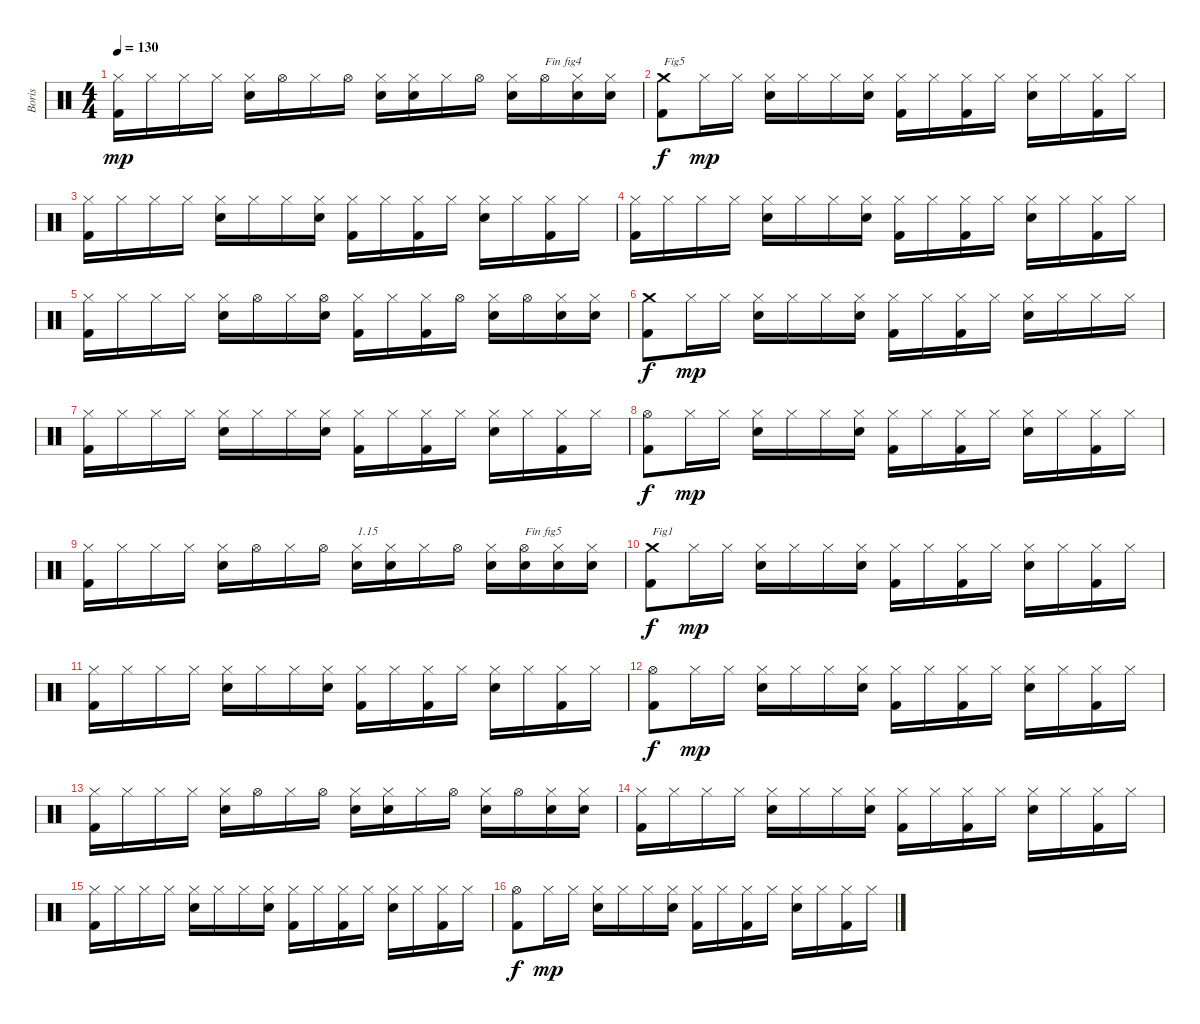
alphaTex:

\track ("Boris" "Boris") {instrument percussion}
\staff {score}
\articulation defaults
\ts (4 4)
\tempo 130
\clef neutral
\ks c
("Kick (hit) 2" "Hi-Hat (closed)").16{dy mp} "Hi-Hat (closed)".16 "Hi-Hat (closed)".16 "Hi-Hat (closed)".16 ("Electric Snare (hit)" "Hi-Hat (closed)").16 "Hi-Hat (open)".16 "Hi-Hat (closed)".16 "Hi-Hat (open)".16 ("Electric Snare (hit)" "Hi-Hat (closed)").16 ("Electric Snare (hit)" "Hi-Hat (closed)").16 "Hi-Hat (closed)".16 "Hi-Hat (open)".16 ("Electric Snare (hit)" "Hi-Hat (closed)").16 "Hi-Hat (open)".16{txt "Fin fig4"} ("Electric Snare (hit)" "Hi-Hat (closed)").16 ("Electric Snare (hit)" "Hi-Hat (closed)").16 |
("Kick (hit) 2" "Crash medium (hit)").8{txt "Fig5" dy f} "Hi-Hat (closed)".16{dy mp} "Hi-Hat (closed)".16 ("Electric Snare (hit)" "Hi-Hat (closed)").16 "Hi-Hat (closed)".16 "Hi-Hat (closed)".16 ("Electric Snare (hit)" "Hi-Hat (closed)").16 ("Kick (hit) 2" "Hi-Hat (closed)").16 "Hi-Hat (closed)".16 ("Kick (hit) 2" "Hi-Hat (closed)").16 "Hi-Hat (closed)".16 ("Electric Snare (hit)" "Hi-Hat (closed)").16 "Hi-Hat (closed)".16 ("Kick (hit) 2" "Hi-Hat (closed)").16 "Hi-Hat (closed)".16 |
("Kick (hit) 2" "Hi-Hat (closed)").16 "Hi-Hat (closed)".16 "Hi-Hat (closed)".16 "Hi-Hat (closed)".16 ("Electric Snare (hit)" "Hi-Hat (closed)").16 "Hi-Hat (closed)".16 "Hi-Hat (closed)".16 ("Electric Snare (hit)" "Hi-Hat (closed)").16 ("Kick (hit) 2" "Hi-Hat (closed)").16 "Hi-Hat (closed)".16 ("Kick (hit) 2" "Hi-Hat (closed)").16 "Hi-Hat (closed)".16 ("Electric Snare (hit)" "Hi-Hat (closed)").16 "Hi-Hat (closed)".16 ("Kick (hit) 2" "Hi-Hat (closed)").16 "Hi-Hat (closed)".16 |
("Kick (hit) 2" "Hi-Hat (closed)").16 "Hi-Hat (closed)".16 "Hi-Hat (closed)".16 "Hi-Hat (closed)".16 ("Electric Snare (hit)" "Hi-Hat (closed)").16 "Hi-Hat (closed)".16 "Hi-Hat (closed)".16 ("Electric Snare (hit)" "Hi-Hat (closed)").16 ("Kick (hit) 2" "Hi-Hat (closed)").16 "Hi-Hat (closed)".16 ("Kick (hit) 2" "Hi-Hat (closed)").16 "Hi-Hat (closed)".16 ("Electric Snare (hit)" "Hi-Hat (closed)").16 "Hi-Hat (closed)".16 ("Kick (hit) 2" "Hi-Hat (closed)").16 "Hi-Hat (closed)".16 |
("Kick (hit) 2" "Hi-Hat (closed)").16 "Hi-Hat (closed)".16 "Hi-Hat (closed)".16 "Hi-Hat (closed)".16 ("Electric Snare (hit)" "Hi-Hat (closed)").16 "Hi-Hat (open)".16 "Hi-Hat (closed)".16 ("Electric Snare (hit)" "Hi-Hat (open)").16 ("Kick (hit) 2" "Hi-Hat (closed)").16 "Hi-Hat (closed)".16 ("Kick (hit) 2" "Hi-Hat (closed)").16 "Hi-Hat (open)".16 ("Electric Snare (hit)" "Hi-Hat (closed)").16 "Hi-Hat (open)".16 ("Electric Snare (hit)" "Hi-Hat (closed)").16 ("Electric Snare (hit)" "Hi-Hat (closed)").16 |
("Kick (hit) 2" "Crash medium (hit)").8{dy f} "Hi-Hat (closed)".16{dy mp} "Hi-Hat (closed)".16 ("Electric Snare (hit)" "Hi-Hat (closed)").16 "Hi-Hat (closed)".16 "Hi-Hat (closed)".16 ("Electric Snare (hit)" "Hi-Hat (closed)").16 ("Kick (hit) 2" "Hi-Hat (closed)").16 "Hi-Hat (closed)".16 ("Kick (hit) 2" "Hi-Hat (closed)").16 "Hi-Hat (closed)".16 ("Electric Snare (hit)" "Hi-Hat (closed)").16 "Hi-Hat (closed)".16 "Hi-Hat (closed)".16 "Hi-Hat (closed)".16 |
("Kick (hit) 2" "Hi-Hat (closed)").16 "Hi-Hat (closed)".16 "Hi-Hat (closed)".16 "Hi-Hat (closed)".16 ("Electric Snare (hit)" "Hi-Hat (closed)").16 "Hi-Hat (closed)".16 "Hi-Hat (closed)".16 ("Electric Snare (hit)" "Hi-Hat (closed)").16 ("Kick (hit) 2" "Hi-Hat (closed)").16 "Hi-Hat (closed)".16 ("Kick (hit) 2" "Hi-Hat (closed)").16 "Hi-Hat (closed)".16 ("Electric Snare (hit)" "Hi-Hat (closed)").16 "Hi-Hat (closed)".16 ("Kick (hit) 2" "Hi-Hat (closed)").16 "Hi-Hat (closed)".16 |
("Kick (hit) 2" "Hi-Hat (open)").8{dy f} "Hi-Hat (closed)".16{dy mp} "Hi-Hat (closed)".16 ("Electric Snare (hit)" "Hi-Hat (closed)").16 "Hi-Hat (closed)".16 "Hi-Hat (closed)".16 ("Electric Snare (hit)" "Hi-Hat (closed)").16 ("Kick (hit) 2" "Hi-Hat (closed)").16 "Hi-Hat (closed)".16 ("Kick (hit) 2" "Hi-Hat (closed)").16 "Hi-Hat (closed)".16 ("Electric Snare (hit)" "Hi-Hat (closed)").16 "Hi-Hat (closed)".16 ("Kick (hit) 2" "Hi-Hat (closed)").16 "Hi-Hat (closed)".16 |
("Kick (hit) 2" "Hi-Hat (closed)").16 "Hi-Hat (closed)".16 "Hi-Hat (closed)".16 "Hi-Hat (closed)".16 ("Electric Snare (hit)" "Hi-Hat (closed)").16 "Hi-Hat (open)".16 "Hi-Hat (closed)".16 "Hi-Hat (open)".16 ("Electric Snare (hit)" "Hi-Hat (closed)").16{txt "1.15"} ("Electric Snare (hit)" "Hi-Hat (closed)").16 "Hi-Hat (closed)".16 "Hi-Hat (open)".16 ("Electric Snare (hit)" "Hi-Hat (closed)").16 ("Electric Snare (hit)" "Hi-Hat (open)").16{txt "Fin fig5"} ("Electric Snare (hit)" "Hi-Hat (closed)").16 ("Electric Snare (hit)" "Hi-Hat (closed)").16 |
("Kick (hit) 2" "Crash medium (hit)").8{txt "Fig1" dy f} "Hi-Hat (closed)".16{dy mp} "Hi-Hat (closed)".16 ("Electric Snare (hit)" "Hi-Hat (closed)").16 "Hi-Hat (closed)".16 "Hi-Hat (closed)".16 ("Electric Snare (hit)" "Hi-Hat (closed)").16 ("Kick (hit) 2" "Hi-Hat (closed)").16 "Hi-Hat (closed)".16 ("Kick (hit) 2" "Hi-Hat (closed)").16 "Hi-Hat (closed)".16 ("Electric Snare (hit)" "Hi-Hat (closed)").16 "Hi-Hat (closed)".16 ("Kick (hit) 2" "Hi-Hat (closed)").16 "Hi-Hat (closed)".16 |
("Kick (hit) 2" "Hi-Hat (closed)").16 "Hi-Hat (closed)".16 "Hi-Hat (closed)".16 "Hi-Hat (closed)".16 ("Electric Snare (hit)" "Hi-Hat (closed)").16 "Hi-Hat (closed)".16 "Hi-Hat (closed)".16 ("Electric Snare (hit)" "Hi-Hat (closed)").16 ("Kick (hit) 2" "Hi-Hat (closed)").16 "Hi-Hat (closed)".16 ("Kick (hit) 2" "Hi-Hat (closed)").16 "Hi-Hat (closed)".16 ("Electric Snare (hit)" "Hi-Hat (closed)").16 "Hi-Hat (closed)".16 ("Kick (hit) 2" "Hi-Hat (closed)").16 "Hi-Hat (closed)".16 |
("Kick (hit) 2" "Hi-Hat (open)").8{dy f} "Hi-Hat (closed)".16{dy mp} "Hi-Hat (closed)".16 ("Electric Snare (hit)" "Hi-Hat (closed)").16 "Hi-Hat (closed)".16 "Hi-Hat (closed)".16 ("Electric Snare (hit)" "Hi-Hat (closed)").16 ("Kick (hit) 2" "Hi-Hat (closed)").16 "Hi-Hat (closed)".16 ("Kick (hit) 2" "Hi-Hat (closed)").16 "Hi-Hat (closed)".16 ("Electric Snare (hit)" "Hi-Hat (closed)").16 "Hi-Hat (closed)".16 ("Kick (hit) 2" "Hi-Hat (closed)").16 "Hi-Hat (closed)".16 |
("Kick (hit) 2" "Hi-Hat (closed)").16 "Hi-Hat (closed)".16 "Hi-Hat (closed)".16 "Hi-Hat (closed)".16 ("Electric Snare (hit)" "Hi-Hat (closed)").16 "Hi-Hat (open)".16 "Hi-Hat (closed)".16 "Hi-Hat (open)".16 ("Electric Snare (hit)" "Hi-Hat (closed)").16 ("Electric Snare (hit)" "Hi-Hat (closed)").16 "Hi-Hat (closed)".16 "Hi-Hat (open)".16 ("Electric Snare (hit)" "Hi-Hat (closed)").16 "Hi-Hat (open)".16 ("Electric Snare (hit)" "Hi-Hat (closed)").16 ("Electric Snare (hit)" "Hi-Hat (closed)").16 |
("Kick (hit) 2" "Hi-Hat (closed)").16 "Hi-Hat (closed)".16 "Hi-Hat (closed)".16 "Hi-Hat (closed)".16 ("Electric Snare (hit)" "Hi-Hat (closed)").16 "Hi-Hat (closed)".16 "Hi-Hat (closed)".16 ("Electric Snare (hit)" "Hi-Hat (closed)").16 ("Kick (hit) 2" "Hi-Hat (closed)").16 "Hi-Hat (closed)".16 ("Kick (hit) 2" "Hi-Hat (closed)").16 "Hi-Hat (closed)".16 ("Electric Snare (hit)" "Hi-Hat (closed)").16 "Hi-Hat (closed)".16 ("Kick (hit) 2" "Hi-Hat (closed)").16 "Hi-Hat (closed)".16 |
("Kick (hit) 2" "Hi-Hat (closed)").16 "Hi-Hat (closed)".16 "Hi-Hat (closed)".16 "Hi-Hat (closed)".16 ("Electric Snare (hit)" "Hi-Hat (closed)").16 "Hi-Hat (closed)".16 "Hi-Hat (closed)".16 ("Electric Snare (hit)" "Hi-Hat (closed)").16 ("Kick (hit) 2" "Hi-Hat (closed)").16 "Hi-Hat (closed)".16 ("Kick (hit) 2" "Hi-Hat (closed)").16 "Hi-Hat (closed)".16 ("Electric Snare (hit)" "Hi-Hat (closed)").16 "Hi-Hat (closed)".16 ("Kick (hit) 2" "Hi-Hat (closed)").16 "Hi-Hat (closed)".16 |
("Kick (hit) 2" "Hi-Hat (open)").8{dy f} "Hi-Hat (closed)".16{dy mp} "Hi-Hat (closed)".16 ("Electric Snare (hit)" "Hi-Hat (closed)").16 "Hi-Hat (closed)".16 "Hi-Hat (closed)".16 ("Electric Snare (hit)" "Hi-Hat (closed)").16 ("Kick (hit) 2" "Hi-Hat (closed)").16 "Hi-Hat (closed)".16 ("Kick (hit) 2" "Hi-Hat (closed)").16 "Hi-Hat (closed)".16 ("Electric Snare (hit)" "Hi-Hat (closed)").16 "Hi-Hat (closed)".16 ("Kick (hit) 2" "Hi-Hat (closed)").16 "Hi-Hat (closed)".16
